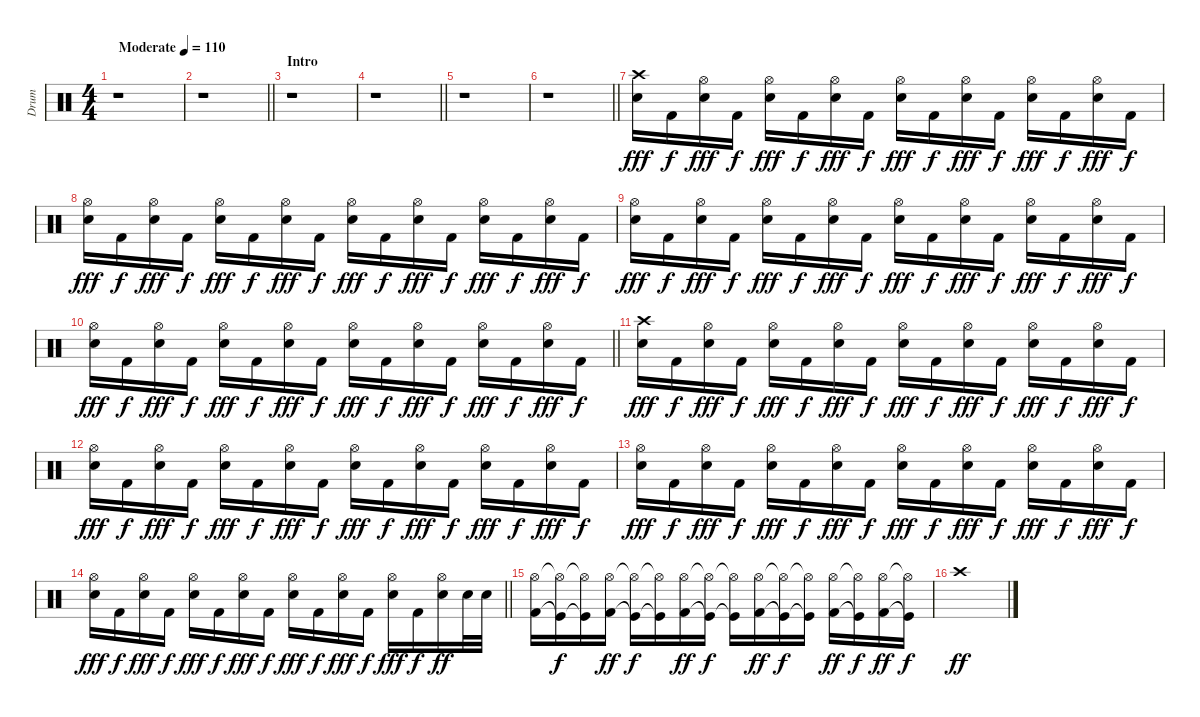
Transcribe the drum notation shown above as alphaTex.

\track ("Drum" "Drum") {instrument percussion}
\staff {score}
\articulation defaults
\ts (4 4)
\tempo (110 "Moderate")
\clef neutral
\ks c
r.1{dy fff} |
\barLineRight lightlight
r.1 |
\section ("" "Intro")
r.1 |
\barLineRight lightlight
r.1 |
r.1 |
\barLineRight lightlight
r.1 |
("Snare (hit) 2" "Crash high (hit)").16 "Kick (hit) 2".16{dy f} ("Snare (hit) 2" "Hi-Hat (open)").16{dy fff} "Kick (hit) 2".16{dy f} ("Snare (hit) 2" "Hi-Hat (open)").16{dy fff} "Kick (hit) 2".16{dy f} ("Snare (hit) 2" "Hi-Hat (open)").16{dy fff} "Kick (hit) 2".16{dy f} ("Snare (hit) 2" "Hi-Hat (open)").16{dy fff} "Kick (hit) 2".16{dy f} ("Snare (hit) 2" "Hi-Hat (open)").16{dy fff} "Kick (hit) 2".16{dy f} ("Snare (hit) 2" "Hi-Hat (open)").16{dy fff} "Kick (hit) 2".16{dy f} ("Snare (hit) 2" "Hi-Hat (open)").16{dy fff} "Kick (hit) 2".16{dy f} |
("Snare (hit) 2" "Hi-Hat (open)").16{dy fff} "Kick (hit) 2".16{dy f} ("Snare (hit) 2" "Hi-Hat (open)").16{dy fff} "Kick (hit) 2".16{dy f} ("Snare (hit) 2" "Hi-Hat (open)").16{dy fff} "Kick (hit) 2".16{dy f} ("Snare (hit) 2" "Hi-Hat (open)").16{dy fff} "Kick (hit) 2".16{dy f} ("Snare (hit) 2" "Hi-Hat (open)").16{dy fff} "Kick (hit) 2".16{dy f} ("Snare (hit) 2" "Hi-Hat (open)").16{dy fff} "Kick (hit) 2".16{dy f} ("Snare (hit) 2" "Hi-Hat (open)").16{dy fff} "Kick (hit) 2".16{dy f} ("Snare (hit) 2" "Hi-Hat (open)").16{dy fff} "Kick (hit) 2".16{dy f} |
("Snare (hit) 2" "Hi-Hat (open)").16{dy fff} "Kick (hit) 2".16{dy f} ("Snare (hit) 2" "Hi-Hat (open)").16{dy fff} "Kick (hit) 2".16{dy f} ("Snare (hit) 2" "Hi-Hat (open)").16{dy fff} "Kick (hit) 2".16{dy f} ("Snare (hit) 2" "Hi-Hat (open)").16{dy fff} "Kick (hit) 2".16{dy f} ("Snare (hit) 2" "Hi-Hat (open)").16{dy fff} "Kick (hit) 2".16{dy f} ("Snare (hit) 2" "Hi-Hat (open)").16{dy fff} "Kick (hit) 2".16{dy f} ("Snare (hit) 2" "Hi-Hat (open)").16{dy fff} "Kick (hit) 2".16{dy f} ("Snare (hit) 2" "Hi-Hat (open)").16{dy fff} "Kick (hit) 2".16{dy f} |
\barLineRight lightlight
("Snare (hit) 2" "Hi-Hat (open)").16{dy fff} "Kick (hit) 2".16{dy f} ("Snare (hit) 2" "Hi-Hat (open)").16{dy fff} "Kick (hit) 2".16{dy f} ("Snare (hit) 2" "Hi-Hat (open)").16{dy fff} "Kick (hit) 2".16{dy f} ("Snare (hit) 2" "Hi-Hat (open)").16{dy fff} "Kick (hit) 2".16{dy f} ("Snare (hit) 2" "Hi-Hat (open)").16{dy fff} "Kick (hit) 2".16{dy f} ("Snare (hit) 2" "Hi-Hat (open)").16{dy fff} "Kick (hit) 2".16{dy f} ("Snare (hit) 2" "Hi-Hat (open)").16{dy fff} "Kick (hit) 2".16{dy f} ("Snare (hit) 2" "Hi-Hat (open)").16{dy fff} "Kick (hit) 2".16{dy f} |
("Snare (hit) 2" "Crash high (hit)").16{dy fff} "Kick (hit) 2".16{dy f} ("Snare (hit) 2" "Hi-Hat (open)").16{dy fff} "Kick (hit) 2".16{dy f} ("Snare (hit) 2" "Hi-Hat (open)").16{dy fff} "Kick (hit) 2".16{dy f} ("Snare (hit) 2" "Hi-Hat (open)").16{dy fff} "Kick (hit) 2".16{dy f} ("Snare (hit) 2" "Hi-Hat (open)").16{dy fff} "Kick (hit) 2".16{dy f} ("Snare (hit) 2" "Hi-Hat (open)").16{dy fff} "Kick (hit) 2".16{dy f} ("Snare (hit) 2" "Hi-Hat (open)").16{dy fff} "Kick (hit) 2".16{dy f} ("Snare (hit) 2" "Hi-Hat (open)").16{dy fff} "Kick (hit) 2".16{dy f} |
("Snare (hit) 2" "Hi-Hat (open)").16{dy fff} "Kick (hit) 2".16{dy f} ("Snare (hit) 2" "Hi-Hat (open)").16{dy fff} "Kick (hit) 2".16{dy f} ("Snare (hit) 2" "Hi-Hat (open)").16{dy fff} "Kick (hit) 2".16{dy f} ("Snare (hit) 2" "Hi-Hat (open)").16{dy fff} "Kick (hit) 2".16{dy f} ("Snare (hit) 2" "Hi-Hat (open)").16{dy fff} "Kick (hit) 2".16{dy f} ("Snare (hit) 2" "Hi-Hat (open)").16{dy fff} "Kick (hit) 2".16{dy f} ("Snare (hit) 2" "Hi-Hat (open)").16{dy fff} "Kick (hit) 2".16{dy f} ("Snare (hit) 2" "Hi-Hat (open)").16{dy fff} "Kick (hit) 2".16{dy f} |
("Snare (hit) 2" "Hi-Hat (open)").16{dy fff} "Kick (hit) 2".16{dy f} ("Snare (hit) 2" "Hi-Hat (open)").16{dy fff} "Kick (hit) 2".16{dy f} ("Snare (hit) 2" "Hi-Hat (open)").16{dy fff} "Kick (hit) 2".16{dy f} ("Snare (hit) 2" "Hi-Hat (open)").16{dy fff} "Kick (hit) 2".16{dy f} ("Snare (hit) 2" "Hi-Hat (open)").16{dy fff} "Kick (hit) 2".16{dy f} ("Snare (hit) 2" "Hi-Hat (open)").16{dy fff} "Kick (hit) 2".16{dy f} ("Snare (hit) 2" "Hi-Hat (open)").16{dy fff} "Kick (hit) 2".16{dy f} ("Snare (hit) 2" "Hi-Hat (open)").16{dy fff} "Kick (hit) 2".16{dy f} |
\barLineRight lightlight
("Snare (hit) 2" "Hi-Hat (open)").16{dy fff} "Kick (hit) 2".16{dy f} ("Snare (hit) 2" "Hi-Hat (open)").16{dy fff} "Kick (hit) 2".16{dy f} ("Snare (hit) 2" "Hi-Hat (open)").16{dy fff} "Kick (hit) 2".16{dy f} ("Snare (hit) 2" "Hi-Hat (open)").16{dy fff} "Kick (hit) 2".16{dy f} ("Snare (hit) 2" "Hi-Hat (open)").16{dy fff} "Kick (hit) 2".16{dy f} ("Snare (hit) 2" "Hi-Hat (open)").16{dy fff} "Kick (hit) 2".16{dy f} ("Snare (hit) 2" "Hi-Hat (open)").16{dy fff} "Kick (hit) 2".16{dy f} ("Hi-Hat (open)" "Snare (hit) 2").16{dy ff} "Snare (hit) 2".32 "Snare (hit) 2".32 |
("Kick (hit) 2" "Hi-Hat (open)").16 ("Kick (hit)"{t} "Hi-Hat (open)"{t}).16{dy f} ("Kick (hit)"{t} "Hi-Hat (open)"{t}).16 ("Kick (hit) 2" "Hi-Hat (open)").16{dy ff} ("Kick (hit)"{t} "Hi-Hat (open)"{t}).16{dy f} ("Kick (hit)"{t} "Hi-Hat (open)"{t}).16 ("Kick (hit) 2" "Hi-Hat (open)").16{dy ff} ("Kick (hit)"{t} "Hi-Hat (open)"{t}).16{dy f} ("Kick (hit)"{t} "Hi-Hat (open)"{t}).16 ("Kick (hit) 2" "Hi-Hat (open)").16{dy ff} ("Kick (hit)"{t} "Hi-Hat (open)"{t}).16{dy f} ("Kick (hit)"{t} "Hi-Hat (open)"{t}).16 ("Kick (hit) 2" "Hi-Hat (open)").16{dy ff} ("Kick (hit)"{t} "Hi-Hat (open)"{t}).16{dy f} ("Kick (hit) 2" "Hi-Hat (open)").16{dy ff} ("Kick (hit)"{t} "Hi-Hat (open)"{t}).16{dy f} |
"Crash high (hit)".1{dy ff}
